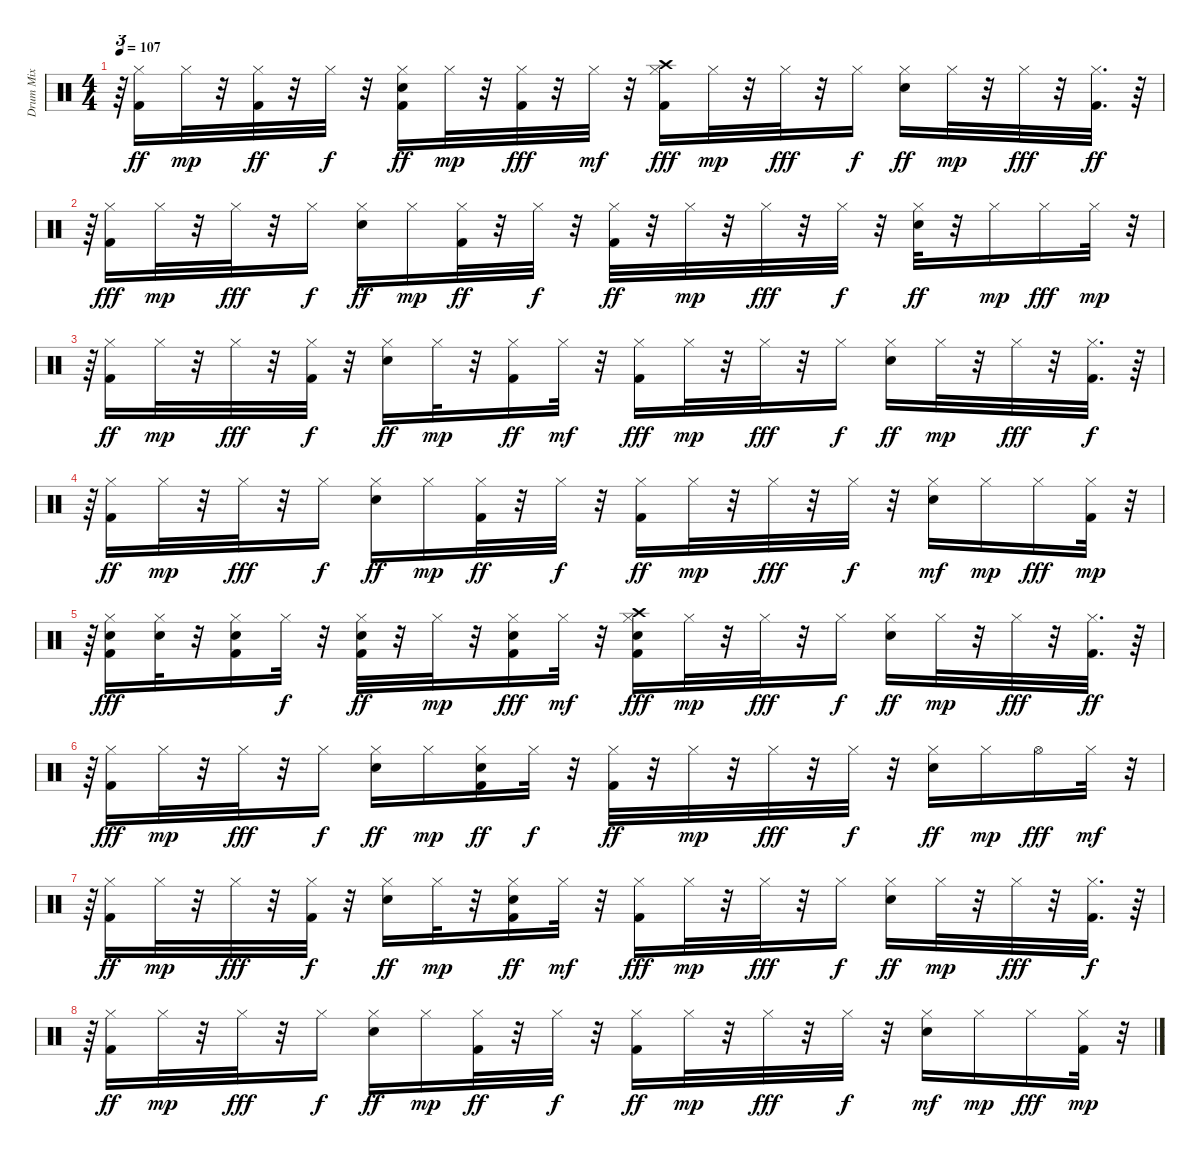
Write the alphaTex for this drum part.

\track ("Drum Mix" "Drum Mix") {instrument percussion}
\staff {score}
\articulation defaults
\ts (4 4)
\tempo 107
\clef neutral
\ks c
r.64{tu (3 2) dy mp} ("Hi-Hat (closed)" "Kick (hit) 2").16{dy ff} "Hi-Hat (closed)".32{dy mp} r.32 ("Hi-Hat (closed)" "Kick (hit) 2").32{dy ff} r.32 "Hi-Hat (closed)".32{dy f} r.32 ("Hi-Hat (closed)" "Snare (hit) 2" "Kick (hit) 2").16{dy ff} "Hi-Hat (closed)".32{dy mp} r.32 ("Hi-Hat (closed)" "Kick (hit) 2").32{dy fff} r.32 "Hi-Hat (closed)".32{dy mf} r.32 ("Hi-Hat (closed)" "Kick (hit) 2" "Crash high (hit)").16{dy fff} "Hi-Hat (closed)".32{dy mp} r.32 "Hi-Hat (closed)".32{dy fff} r.32 "Hi-Hat (closed)".16{dy f} ("Hi-Hat (closed)" "Snare (hit) 2").16{dy ff} "Hi-Hat (closed)".32{dy mp} r.32 "Hi-Hat (closed)".32{dy fff} r.32 ("Hi-Hat (closed)" "Kick (hit) 2").32{d dy ff} r.64 |
r.64{tu (3 2)} ("Hi-Hat (closed)" "Kick (hit) 2").16{dy fff} "Hi-Hat (closed)".32{dy mp} r.32 "Hi-Hat (closed)".32{dy fff} r.32 "Hi-Hat (closed)".16{dy f} ("Hi-Hat (closed)" "Snare (hit) 2").16{dy ff} "Hi-Hat (closed)".16{dy mp} ("Hi-Hat (closed)" "Kick (hit) 2").32{dy ff} r.32 "Hi-Hat (closed)".32{dy f} r.32 ("Hi-Hat (closed)" "Kick (hit) 2").32{dy ff} r.32 "Hi-Hat (closed)".32{dy mp} r.32 "Hi-Hat (closed)".32{dy fff} r.32 "Hi-Hat (closed)".32{dy f} r.32 ("Hi-Hat (closed)" "Snare (hit) 2").32{dy ff} r.32 "Hi-Hat (closed)".16{dy mp} "Hi-Hat (closed)".16{dy fff} "Hi-Hat (closed)".32{dy mp} r.32{tu (3 2)} |
r.64{tu (3 2)} ("Hi-Hat (closed)" "Kick (hit) 2").16{dy ff} "Hi-Hat (closed)".32{dy mp} r.32 "Hi-Hat (closed)".32{dy fff} r.32 ("Hi-Hat (closed)" "Kick (hit) 2").32{dy f} r.32 ("Hi-Hat (closed)" "Snare (hit) 2").16{dy ff} "Hi-Hat (closed)".32{dy mp} r.32 ("Hi-Hat (closed)" "Kick (hit) 2").16{dy ff} "Hi-Hat (closed)".32{dy mf} r.32 ("Hi-Hat (closed)" "Kick (hit) 2").16{dy fff} "Hi-Hat (closed)".32{dy mp} r.32 "Hi-Hat (closed)".32{dy fff} r.32 "Hi-Hat (closed)".16{dy f} ("Hi-Hat (closed)" "Snare (hit) 2").16{dy ff} "Hi-Hat (closed)".32{dy mp} r.32 "Hi-Hat (closed)".32{dy fff} r.32 ("Hi-Hat (closed)" "Kick (hit) 2").32{d dy f} r.64 |
r.64{tu (3 2)} ("Hi-Hat (closed)" "Kick (hit) 2").16{dy ff} "Hi-Hat (closed)".32{dy mp} r.32 "Hi-Hat (closed)".32{dy fff} r.32 "Hi-Hat (closed)".16{dy f} ("Hi-Hat (closed)" "Snare (hit) 2").16{dy ff} "Hi-Hat (closed)".16{dy mp} ("Hi-Hat (closed)" "Kick (hit) 2").32{dy ff} r.32 "Hi-Hat (closed)".32{dy f} r.32 ("Hi-Hat (closed)" "Kick (hit) 2").16{dy ff} "Hi-Hat (closed)".32{dy mp} r.32 "Hi-Hat (closed)".32{dy fff} r.32 "Hi-Hat (closed)".32{dy f} r.32 ("Hi-Hat (closed)" "Snare (hit) 2").16{dy mf} "Hi-Hat (closed)".16{dy mp} "Hi-Hat (closed)".16{dy fff} ("Hi-Hat (closed)" "Kick (hit) 2").32{dy mp} r.32{tu (3 2)} |
r.64{tu (3 2)} ("Hi-Hat (closed)" "Kick (hit) 2" "Snare (hit) 2").16{dy fff} ("Hi-Hat (closed)" "Snare (hit) 2").32 r.32 ("Hi-Hat (closed)" "Kick (hit) 2" "Snare (hit) 2").16 "Hi-Hat (closed)".32{dy f} r.32 ("Hi-Hat (closed)" "Snare (hit) 2" "Kick (hit) 2").32{dy ff} r.32 "Hi-Hat (closed)".32{dy mp} r.32 ("Hi-Hat (closed)" "Snare (hit) 2" "Kick (hit) 2").16{dy fff} "Hi-Hat (closed)".32{dy mf} r.32 ("Hi-Hat (closed)" "Kick (hit) 2" "Crash high (hit)" "Snare (hit) 2").16{dy fff} "Hi-Hat (closed)".32{dy mp} r.32 "Hi-Hat (closed)".32{dy fff} r.32 "Hi-Hat (closed)".16{dy f} ("Hi-Hat (closed)" "Snare (hit) 2").16{dy ff} "Hi-Hat (closed)".32{dy mp} r.32 "Hi-Hat (closed)".32{dy fff} r.32 ("Hi-Hat (closed)" "Kick (hit) 2").32{d dy ff} r.64 |
r.64{tu (3 2)} ("Hi-Hat (closed)" "Kick (hit) 2").16{dy fff} "Hi-Hat (closed)".32{dy mp} r.32 "Hi-Hat (closed)".32{dy fff} r.32 "Hi-Hat (closed)".16{dy f} ("Hi-Hat (closed)" "Snare (hit) 2").16{dy ff} "Hi-Hat (closed)".16{dy mp} ("Hi-Hat (closed)" "Snare (hit) 2" "Kick (hit) 2").16{dy ff} "Hi-Hat (closed)".32{dy f} r.32 ("Hi-Hat (closed)" "Kick (hit) 2").32{dy ff} r.32 "Hi-Hat (closed)".32{dy mp} r.32 "Hi-Hat (closed)".32{dy fff} r.32 "Hi-Hat (closed)".32{dy f} r.32 ("Hi-Hat (closed)" "Snare (hit) 2").16{dy ff} "Hi-Hat (closed)".16{dy mp} "Hi-Hat (open)".16{dy fff} "Hi-Hat (closed)".32{dy mf} r.32{tu (3 2)} |
r.64{tu (3 2)} ("Hi-Hat (closed)" "Kick (hit) 2").16{dy ff} "Hi-Hat (closed)".32{dy mp} r.32 "Hi-Hat (closed)".32{dy fff} r.32 ("Hi-Hat (closed)" "Kick (hit) 2").32{dy f} r.32 ("Hi-Hat (closed)" "Snare (hit) 2").16{dy ff} "Hi-Hat (closed)".32{dy mp} r.32 ("Hi-Hat (closed)" "Snare (hit) 2" "Kick (hit) 2").16{dy ff} "Hi-Hat (closed)".32{dy mf} r.32 ("Hi-Hat (closed)" "Kick (hit) 2").16{dy fff} "Hi-Hat (closed)".32{dy mp} r.32 "Hi-Hat (closed)".32{dy fff} r.32 "Hi-Hat (closed)".16{dy f} ("Hi-Hat (closed)" "Snare (hit) 2").16{dy ff} "Hi-Hat (closed)".32{dy mp} r.32 "Hi-Hat (closed)".32{dy fff} r.32 ("Hi-Hat (closed)" "Kick (hit) 2").32{d dy f} r.64 |
r.64{tu (3 2)} ("Hi-Hat (closed)" "Kick (hit) 2").16{dy ff} "Hi-Hat (closed)".32{dy mp} r.32 "Hi-Hat (closed)".32{dy fff} r.32 "Hi-Hat (closed)".16{dy f} ("Hi-Hat (closed)" "Snare (hit) 2").16{dy ff} "Hi-Hat (closed)".16{dy mp} ("Hi-Hat (closed)" "Kick (hit) 2").32{dy ff} r.32 "Hi-Hat (closed)".32{dy f} r.32 ("Hi-Hat (closed)" "Kick (hit) 2").16{dy ff} "Hi-Hat (closed)".32{dy mp} r.32 "Hi-Hat (closed)".32{dy fff} r.32 "Hi-Hat (closed)".32{dy f} r.32 ("Hi-Hat (closed)" "Snare (hit) 2").16{dy mf} "Hi-Hat (closed)".16{dy mp} "Hi-Hat (closed)".16{dy fff} ("Hi-Hat (closed)" "Kick (hit) 2").32{dy mp} r.32{tu (3 2)}
